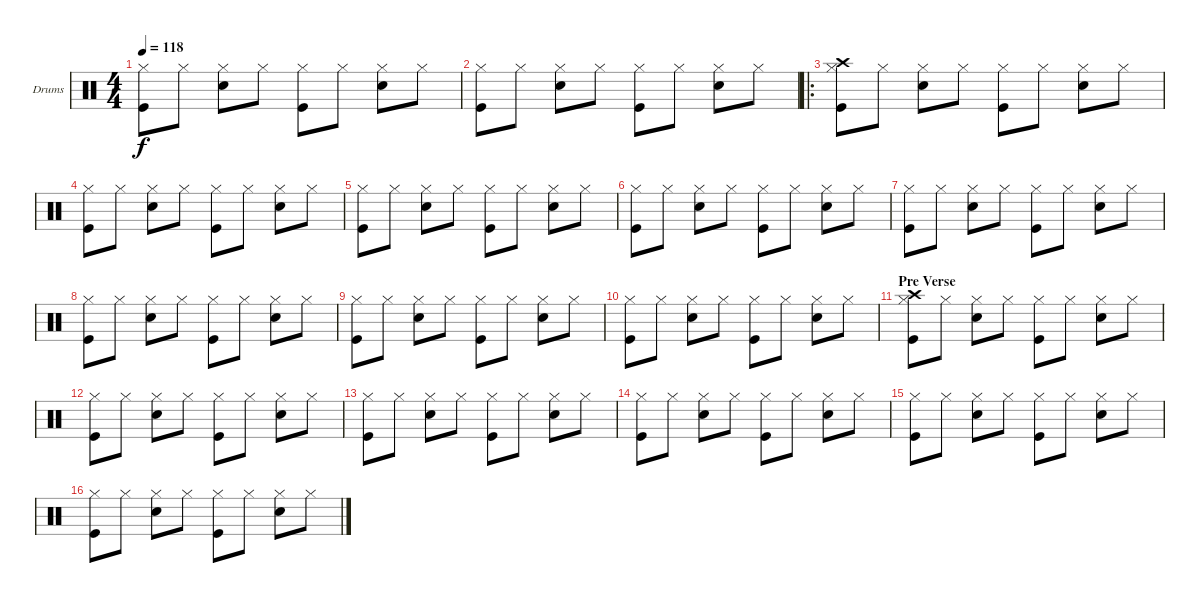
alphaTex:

\bracketExtendMode groupsimilarinstruments
\firstSystemTrackNameOrientation horizontal
\otherSystemsTrackNameOrientation horizontal
\track ("Drumkit" "Drums") {instrument percussion}
\staff {score}
\articulation defaults
\ts (4 4)
\tempo 118
\clef neutral
\scale
0.333333
\ks c
("Hi-Hat (closed)" "Kick (hit)").8{dy f} "Hi-Hat (closed)".8 ("Hi-Hat (closed)" "Snare (hit) 2").8 "Hi-Hat (closed)".8 ("Hi-Hat (closed)" "Kick (hit)").8 "Hi-Hat (closed)".8 ("Hi-Hat (closed)" "Snare (hit) 2").8 "Hi-Hat (closed)".8 |
\scale
0.333333 ("Hi-Hat (closed)" "Kick (hit)").8 "Hi-Hat (closed)".8 ("Hi-Hat (closed)" "Snare (hit) 2").8 "Hi-Hat (closed)".8 ("Hi-Hat (closed)" "Kick (hit)").8 "Hi-Hat (closed)".8 ("Hi-Hat (closed)" "Snare (hit) 2").8 "Hi-Hat (closed)".8 |
\ro
\scale
0.377778 ("Hi-Hat (closed)" "Kick (hit)" "Crash high (hit)").8 "Hi-Hat (closed)".8 ("Hi-Hat (closed)" "Snare (hit) 2").8 "Hi-Hat (closed)".8 ("Hi-Hat (closed)" "Kick (hit)").8 "Hi-Hat (closed)".8 ("Hi-Hat (closed)" "Snare (hit) 2").8 "Hi-Hat (closed)".8 |
\scale
0.311111 ("Hi-Hat (closed)" "Kick (hit)").8 "Hi-Hat (closed)".8 ("Hi-Hat (closed)" "Snare (hit) 2").8 "Hi-Hat (closed)".8 ("Hi-Hat (closed)" "Kick (hit)").8 "Hi-Hat (closed)".8 ("Hi-Hat (closed)" "Snare (hit) 2").8 "Hi-Hat (closed)".8 |
\scale
0.311111 ("Hi-Hat (closed)" "Kick (hit)").8 "Hi-Hat (closed)".8 ("Hi-Hat (closed)" "Snare (hit) 2").8 "Hi-Hat (closed)".8 ("Hi-Hat (closed)" "Kick (hit)").8 "Hi-Hat (closed)".8 ("Hi-Hat (closed)" "Snare (hit) 2").8 "Hi-Hat (closed)".8 |
\scale
0.333333 ("Hi-Hat (closed)" "Kick (hit)").8 "Hi-Hat (closed)".8 ("Hi-Hat (closed)" "Snare (hit) 2").8 "Hi-Hat (closed)".8 ("Hi-Hat (closed)" "Kick (hit)").8 "Hi-Hat (closed)".8 ("Hi-Hat (closed)" "Snare (hit) 2").8 "Hi-Hat (closed)".8 |
\scale
0.333333 ("Hi-Hat (closed)" "Kick (hit)").8 "Hi-Hat (closed)".8 ("Hi-Hat (closed)" "Snare (hit) 2").8 "Hi-Hat (closed)".8 ("Hi-Hat (closed)" "Kick (hit)").8 "Hi-Hat (closed)".8 ("Hi-Hat (closed)" "Snare (hit) 2").8 "Hi-Hat (closed)".8 |
\scale
0.333333 ("Hi-Hat (closed)" "Kick (hit)").8 "Hi-Hat (closed)".8 ("Hi-Hat (closed)" "Snare (hit) 2").8 "Hi-Hat (closed)".8 ("Hi-Hat (closed)" "Kick (hit)").8 "Hi-Hat (closed)".8 ("Hi-Hat (closed)" "Snare (hit) 2").8 "Hi-Hat (closed)".8 |
\scale
0.333333 ("Hi-Hat (closed)" "Kick (hit)").8 "Hi-Hat (closed)".8 ("Hi-Hat (closed)" "Snare (hit) 2").8 "Hi-Hat (closed)".8 ("Hi-Hat (closed)" "Kick (hit)").8 "Hi-Hat (closed)".8 ("Hi-Hat (closed)" "Snare (hit) 2").8 "Hi-Hat (closed)".8 |
\scale
0.333333 ("Hi-Hat (closed)" "Kick (hit)").8 "Hi-Hat (closed)".8 ("Hi-Hat (closed)" "Snare (hit) 2").8 "Hi-Hat (closed)".8 ("Hi-Hat (closed)" "Kick (hit)").8 "Hi-Hat (closed)".8 ("Hi-Hat (closed)" "Snare (hit) 2").8 "Hi-Hat (closed)".8 |
\section ("" "Pre Verse")
\scale
0.333333 ("Hi-Hat (closed)" "Kick (hit)" "Crash high (hit)").8 "Hi-Hat (closed)".8 ("Hi-Hat (closed)" "Snare (hit) 2").8 "Hi-Hat (closed)".8 ("Hi-Hat (closed)" "Kick (hit)").8 "Hi-Hat (closed)".8 ("Hi-Hat (closed)" "Snare (hit) 2").8 "Hi-Hat (closed)".8 |
\scale
0.333333 ("Hi-Hat (closed)" "Kick (hit)").8 "Hi-Hat (closed)".8 ("Hi-Hat (closed)" "Snare (hit) 2").8 "Hi-Hat (closed)".8 ("Hi-Hat (closed)" "Kick (hit)").8 "Hi-Hat (closed)".8 ("Hi-Hat (closed)" "Snare (hit) 2").8 "Hi-Hat (closed)".8 |
\scale
0.333333 ("Hi-Hat (closed)" "Kick (hit)").8 "Hi-Hat (closed)".8 ("Hi-Hat (closed)" "Snare (hit) 2").8 "Hi-Hat (closed)".8 ("Hi-Hat (closed)" "Kick (hit)").8 "Hi-Hat (closed)".8 ("Hi-Hat (closed)" "Snare (hit) 2").8 "Hi-Hat (closed)".8 |
\scale
0.333333 ("Hi-Hat (closed)" "Kick (hit)").8 "Hi-Hat (closed)".8 ("Hi-Hat (closed)" "Snare (hit) 2").8 "Hi-Hat (closed)".8 ("Hi-Hat (closed)" "Kick (hit)").8 "Hi-Hat (closed)".8 ("Hi-Hat (closed)" "Snare (hit) 2").8 "Hi-Hat (closed)".8 |
\scale
0.333333 ("Hi-Hat (closed)" "Kick (hit)").8 "Hi-Hat (closed)".8 ("Hi-Hat (closed)" "Snare (hit) 2").8 "Hi-Hat (closed)".8 ("Hi-Hat (closed)" "Kick (hit)").8 "Hi-Hat (closed)".8 ("Hi-Hat (closed)" "Snare (hit) 2").8 "Hi-Hat (closed)".8 |
\scale
0.333333 ("Hi-Hat (closed)" "Kick (hit)").8 "Hi-Hat (closed)".8 ("Hi-Hat (closed)" "Snare (hit) 2").8 "Hi-Hat (closed)".8 ("Hi-Hat (closed)" "Kick (hit)").8 "Hi-Hat (closed)".8 ("Hi-Hat (closed)" "Snare (hit) 2").8 "Hi-Hat (closed)".8
